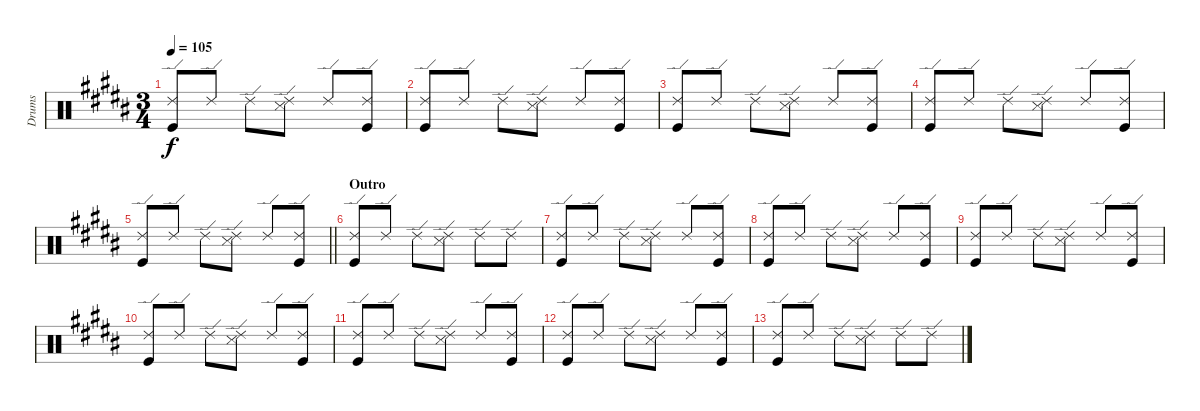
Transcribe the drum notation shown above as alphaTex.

\track ("Drums" "Drums") {instrument percussion}
\staff {score}
\articulation defaults
\ts (3 4)
\tempo 105
\clef neutral
\ks b
("Ride (edge) 2" "Kick (hit)").8{dy f} "Ride (edge) 2".8 "Ride (edge) 2".8 ("Ride (edge) 2" "Snare (side stick) 3").8 "Ride (edge) 2".8 ("Ride (edge) 2" "Kick (hit)").8 |
("Ride (edge) 2" "Kick (hit)").8 "Ride (edge) 2".8 "Ride (edge) 2".8 ("Ride (edge) 2" "Snare (side stick) 3").8 "Ride (edge) 2".8 ("Ride (edge) 2" "Kick (hit)").8 |
("Ride (edge) 2" "Kick (hit)").8 "Ride (edge) 2".8 "Ride (edge) 2".8 ("Ride (edge) 2" "Snare (side stick) 3").8 "Ride (edge) 2".8 ("Ride (edge) 2" "Kick (hit)").8 |
("Ride (edge) 2" "Kick (hit)").8 "Ride (edge) 2".8 "Ride (edge) 2".8 ("Ride (edge) 2" "Snare (side stick) 3").8 "Ride (edge) 2".8 ("Ride (edge) 2" "Kick (hit)").8 |
\barLineRight lightlight
("Ride (edge) 2" "Kick (hit)").8 "Ride (edge) 2".8 "Ride (edge) 2".8 ("Ride (edge) 2" "Snare (side stick) 3").8 "Ride (edge) 2".8 ("Ride (edge) 2" "Kick (hit)").8 |
\section ("" "Outro")
("Ride (edge) 2" "Kick (hit)").8 "Ride (edge) 2".8 "Ride (edge) 2".8 ("Ride (edge) 2" "Snare (side stick) 3").8 "Ride (edge) 2".8 "Ride (edge) 2".8 |
("Ride (edge) 2" "Kick (hit)").8 "Ride (edge) 2".8 "Ride (edge) 2".8 ("Ride (edge) 2" "Snare (side stick) 3").8 "Ride (edge) 2".8 ("Ride (edge) 2" "Kick (hit)").8 |
("Ride (edge) 2" "Kick (hit)").8 "Ride (edge) 2".8 "Ride (edge) 2".8 ("Ride (edge) 2" "Snare (side stick) 3").8 "Ride (edge) 2".8 ("Ride (edge) 2" "Kick (hit)").8 |
("Ride (edge) 2" "Kick (hit)").8 "Ride (edge) 2".8 "Ride (edge) 2".8 ("Ride (edge) 2" "Snare (side stick) 3").8 "Ride (edge) 2".8 ("Ride (edge) 2" "Kick (hit)").8 |
("Ride (edge) 2" "Kick (hit)").8{volume 0} "Ride (edge) 2".8 "Ride (edge) 2".8 ("Ride (edge) 2" "Snare (side stick) 3").8 "Ride (edge) 2".8 ("Ride (edge) 2" "Kick (hit)").8 |
("Ride (edge) 2" "Kick (hit)").8 "Ride (edge) 2".8 "Ride (edge) 2".8 ("Ride (edge) 2" "Snare (side stick) 3").8 "Ride (edge) 2".8 ("Ride (edge) 2" "Kick (hit)").8 |
("Ride (edge) 2" "Kick (hit)").8 "Ride (edge) 2".8 "Ride (edge) 2".8 ("Ride (edge) 2" "Snare (side stick) 3").8 "Ride (edge) 2".8 ("Ride (edge) 2" "Kick (hit)").8 |
("Ride (edge) 2" "Kick (hit)").8 "Ride (edge) 2".8 "Ride (edge) 2".8 ("Ride (edge) 2" "Snare (side stick) 3").8 "Ride (edge) 2".8 "Ride (edge) 2".8
